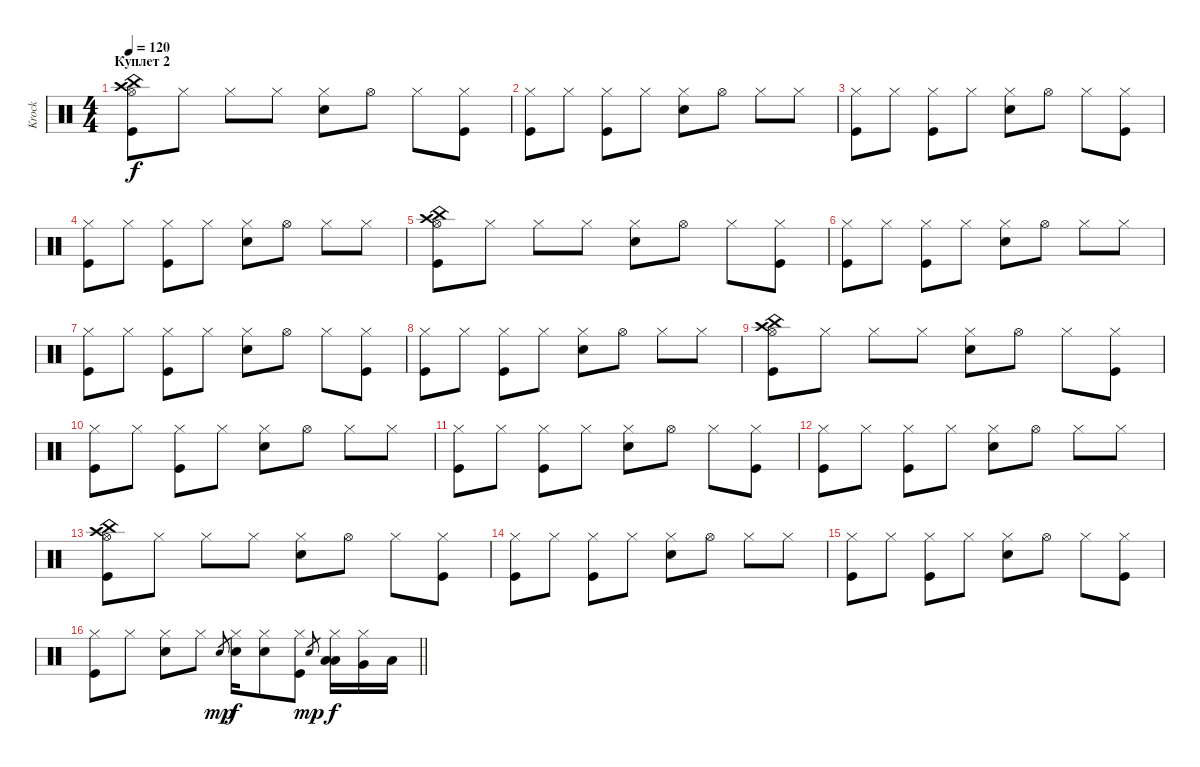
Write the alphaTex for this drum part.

\track ("Krock" "Krock") {instrument percussion}
\staff {score}
\articulation defaults
\ts (4 4)
\section ("" "Куплет 2")
\tempo 120
\clef neutral
\ks c
("China (hit)" "Hi-Hat (open)" "Crash high (hit)" "Kick (hit)").8{dy f} "Hi-Hat (closed)".8 "Hi-Hat (closed)".8 "Hi-Hat (closed)".8 ("Hi-Hat (closed)" "Snare (hit) 2").8 "Hi-Hat (open)".8 "Hi-Hat (closed)".8 ("Hi-Hat (closed)" "Kick (hit)").8 |
("Hi-Hat (closed)" "Kick (hit)").8 "Hi-Hat (closed)".8 ("Hi-Hat (closed)" "Kick (hit)").8 "Hi-Hat (closed)".8 ("Hi-Hat (closed)" "Snare (hit) 2").8 "Hi-Hat (open)".8 "Hi-Hat (closed)".8 "Hi-Hat (closed)".8 |
("Hi-Hat (closed)" "Kick (hit)").8 "Hi-Hat (closed)".8 ("Hi-Hat (closed)" "Kick (hit)").8 "Hi-Hat (closed)".8 ("Hi-Hat (closed)" "Snare (hit) 2").8 "Hi-Hat (open)".8 "Hi-Hat (closed)".8 ("Hi-Hat (closed)" "Kick (hit)").8 |
("Hi-Hat (closed)" "Kick (hit)").8 "Hi-Hat (closed)".8 ("Hi-Hat (closed)" "Kick (hit)").8 "Hi-Hat (closed)".8 ("Hi-Hat (closed)" "Snare (hit) 2").8 "Hi-Hat (open)".8 "Hi-Hat (closed)".8 "Hi-Hat (closed)".8 |
("China (hit)" "Hi-Hat (open)" "Crash high (hit)" "Kick (hit)").8 "Hi-Hat (closed)".8 "Hi-Hat (closed)".8 "Hi-Hat (closed)".8 ("Hi-Hat (closed)" "Snare (hit) 2").8 "Hi-Hat (open)".8 "Hi-Hat (closed)".8 ("Hi-Hat (closed)" "Kick (hit)").8 |
("Hi-Hat (closed)" "Kick (hit)").8 "Hi-Hat (closed)".8 ("Hi-Hat (closed)" "Kick (hit)").8 "Hi-Hat (closed)".8 ("Hi-Hat (closed)" "Snare (hit) 2").8 "Hi-Hat (open)".8 "Hi-Hat (closed)".8 "Hi-Hat (closed)".8 |
("Hi-Hat (closed)" "Kick (hit)").8 "Hi-Hat (closed)".8 ("Hi-Hat (closed)" "Kick (hit)").8 "Hi-Hat (closed)".8 ("Hi-Hat (closed)" "Snare (hit) 2").8 "Hi-Hat (open)".8 "Hi-Hat (closed)".8 ("Hi-Hat (closed)" "Kick (hit)").8 |
("Hi-Hat (closed)" "Kick (hit)").8 "Hi-Hat (closed)".8 ("Hi-Hat (closed)" "Kick (hit)").8 "Hi-Hat (closed)".8 ("Hi-Hat (closed)" "Snare (hit) 2").8 "Hi-Hat (open)".8 "Hi-Hat (closed)".8 "Hi-Hat (closed)".8 |
("China (hit)" "Hi-Hat (open)" "Crash high (hit)" "Kick (hit)").8 "Hi-Hat (closed)".8 "Hi-Hat (closed)".8 "Hi-Hat (closed)".8 ("Hi-Hat (closed)" "Snare (hit) 2").8 "Hi-Hat (open)".8 "Hi-Hat (closed)".8 ("Hi-Hat (closed)" "Kick (hit)").8 |
("Hi-Hat (closed)" "Kick (hit)").8 "Hi-Hat (closed)".8 ("Hi-Hat (closed)" "Kick (hit)").8 "Hi-Hat (closed)".8 ("Hi-Hat (closed)" "Snare (hit) 2").8 "Hi-Hat (open)".8 "Hi-Hat (closed)".8 "Hi-Hat (closed)".8 |
("Hi-Hat (closed)" "Kick (hit)").8 "Hi-Hat (closed)".8 ("Hi-Hat (closed)" "Kick (hit)").8 "Hi-Hat (closed)".8 ("Hi-Hat (closed)" "Snare (hit) 2").8 "Hi-Hat (open)".8 "Hi-Hat (closed)".8 ("Hi-Hat (closed)" "Kick (hit)").8 |
("Hi-Hat (closed)" "Kick (hit)").8 "Hi-Hat (closed)".8 ("Hi-Hat (closed)" "Kick (hit)").8 "Hi-Hat (closed)".8 ("Hi-Hat (closed)" "Snare (hit) 2").8 "Hi-Hat (open)".8 "Hi-Hat (closed)".8 "Hi-Hat (closed)".8 |
("China (hit)" "Hi-Hat (open)" "Crash high (hit)" "Kick (hit)").8 "Hi-Hat (closed)".8 "Hi-Hat (closed)".8 "Hi-Hat (closed)".8 ("Hi-Hat (closed)" "Snare (hit) 2").8 "Hi-Hat (open)".8 "Hi-Hat (closed)".8 ("Hi-Hat (closed)" "Kick (hit)").8 |
("Hi-Hat (closed)" "Kick (hit)").8 "Hi-Hat (closed)".8 ("Hi-Hat (closed)" "Kick (hit)").8 "Hi-Hat (closed)".8 ("Hi-Hat (closed)" "Snare (hit) 2").8 "Hi-Hat (open)".8 "Hi-Hat (closed)".8 "Hi-Hat (closed)".8 |
("Hi-Hat (closed)" "Kick (hit)").8 "Hi-Hat (closed)".8 ("Hi-Hat (closed)" "Kick (hit)").8 "Hi-Hat (closed)".8 ("Hi-Hat (closed)" "Snare (hit) 2").8 "Hi-Hat (open)".8 "Hi-Hat (closed)".8 ("Hi-Hat (closed)" "Kick (hit)").8 |
\barLineRight lightlight
("Hi-Hat (closed)" "Kick (hit)").8 "Hi-Hat (closed)".8 ("Hi-Hat (closed)" "Snare (hit) 2").8 "Hi-Hat (closed)".8 "Snare (hit) 2".8{gr dy mp} ("Hi-Hat (closed)" "Snare (hit) 2").16{dy f} ("Hi-Hat (closed)" "Snare (hit) 2").8 ("Hi-Hat (closed)" "Kick (hit)").8 "Snare (hit) 2".8{gr dy mp} ("Hi-Hat (closed)" "Low Floor Tom (hit)" "Low Floor Tom (hit)").16{dy f} ("Hi-Hat (closed)" "Very Low Tom (hit)").16 "Low Tom (hit)".16
